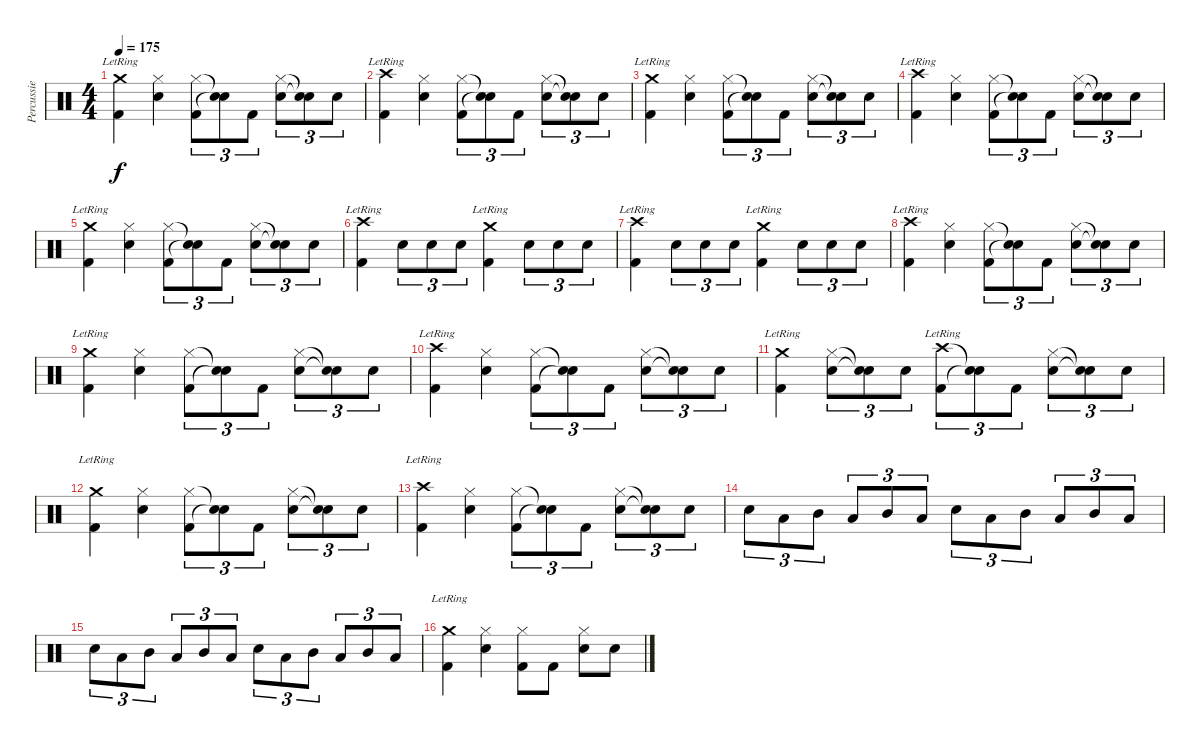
\track ("Percussie" "Percussie") {instrument percussion}
\staff {score}
\articulation defaults
\ts (4 4)
\tempo 175
\clef neutral
\ks c
("Crash medium (hit)"{lr} "Kick (hit) 2").4{dy f} ("Hi-Hat (closed)" "Snare (hit) 2").4 ("Hi-Hat (closed)" "Kick (hit) 2").8{tu (3 2)} ("Snare (hit)"{t} "Snare (hit)"{t}).8{tu (3 2)} "Kick (hit) 2".8{tu (3 2)} ("Hi-Hat (closed)" "Snare (hit) 2").8{tu (3 2)} ("Snare (hit)"{t} "Snare (hit)"{t}).8{tu (3 2)} "Snare (hit) 2".8{tu (3 2)} |
("Crash high (hit)"{lr} "Kick (hit) 2").4 ("Hi-Hat (closed)" "Snare (hit) 2").4 ("Hi-Hat (closed)" "Kick (hit) 2").8{tu (3 2)} ("Snare (hit)"{t} "Snare (hit)"{t}).8{tu (3 2)} "Kick (hit) 2".8{tu (3 2)} ("Hi-Hat (closed)" "Snare (hit) 2").8{tu (3 2)} ("Snare (hit)"{t} "Snare (hit)"{t}).8{tu (3 2)} "Snare (hit) 2".8{tu (3 2)} |
("Crash medium (hit)"{lr} "Kick (hit) 2").4 ("Hi-Hat (closed)" "Snare (hit) 2").4 ("Hi-Hat (closed)" "Kick (hit) 2").8{tu (3 2)} ("Snare (hit)"{t} "Snare (hit)"{t}).8{tu (3 2)} "Kick (hit) 2".8{tu (3 2)} ("Hi-Hat (closed)" "Snare (hit) 2").8{tu (3 2)} ("Snare (hit)"{t} "Snare (hit)"{t}).8{tu (3 2)} "Snare (hit) 2".8{tu (3 2)} |
("Crash high (hit)"{lr} "Kick (hit) 2").4 ("Hi-Hat (closed)" "Snare (hit) 2").4 ("Hi-Hat (closed)" "Kick (hit) 2").8{tu (3 2)} ("Snare (hit)"{t} "Snare (hit)"{t}).8{tu (3 2)} "Kick (hit) 2".8{tu (3 2)} ("Hi-Hat (closed)" "Snare (hit) 2").8{tu (3 2)} ("Snare (hit)"{t} "Snare (hit)"{t}).8{tu (3 2)} "Snare (hit) 2".8{tu (3 2)} |
("Crash medium (hit)"{lr} "Kick (hit) 2").4 ("Hi-Hat (closed)" "Snare (hit) 2").4 ("Hi-Hat (closed)" "Kick (hit) 2").8{tu (3 2)} ("Snare (hit)"{t} "Snare (hit)"{t}).8{tu (3 2)} "Kick (hit) 2".8{tu (3 2)} ("Hi-Hat (closed)" "Snare (hit) 2").8{tu (3 2)} ("Snare (hit)"{t} "Snare (hit)"{t}).8{tu (3 2)} "Snare (hit) 2".8{tu (3 2)} |
("Crash high (hit)"{lr} "Kick (hit) 2").4 "Snare (hit) 2".8{tu (3 2)} "Snare (hit) 2".8{tu (3 2)} "Snare (hit) 2".8{tu (3 2)} ("Crash medium (hit)"{lr} "Kick (hit) 2").4 "Snare (hit) 2".8{tu (3 2)} "Snare (hit) 2".8{tu (3 2)} "Snare (hit) 2".8{tu (3 2)} |
("Crash high (hit)"{lr} "Kick (hit) 2").4 "Snare (hit) 2".8{tu (3 2)} "Snare (hit) 2".8{tu (3 2)} "Snare (hit) 2".8{tu (3 2)} ("Crash medium (hit)"{lr} "Kick (hit) 2").4 "Snare (hit) 2".8{tu (3 2)} "Snare (hit) 2".8{tu (3 2)} "Snare (hit) 2".8{tu (3 2)} |
("Crash high (hit)"{lr} "Kick (hit) 2").4 ("Hi-Hat (closed)" "Snare (hit) 2").4 ("Hi-Hat (closed)" "Kick (hit) 2").8{tu (3 2)} ("Snare (hit)"{t} "Snare (hit)"{t}).8{tu (3 2)} "Kick (hit) 2".8{tu (3 2)} ("Hi-Hat (closed)" "Snare (hit) 2").8{tu (3 2)} ("Snare (hit)"{t} "Snare (hit)"{t}).8{tu (3 2)} "Snare (hit) 2".8{tu (3 2)} |
("Crash medium (hit)"{lr} "Kick (hit) 2").4 ("Hi-Hat (closed)" "Snare (hit) 2").4 ("Hi-Hat (closed)" "Kick (hit) 2").8{tu (3 2)} ("Snare (hit)"{t} "Snare (hit)"{t}).8{tu (3 2)} "Kick (hit) 2".8{tu (3 2)} ("Hi-Hat (closed)" "Snare (hit) 2").8{tu (3 2)} ("Snare (hit)"{t} "Snare (hit)"{t}).8{tu (3 2)} "Snare (hit) 2".8{tu (3 2)} |
("Crash high (hit)"{lr} "Kick (hit) 2").4 ("Hi-Hat (closed)" "Snare (hit) 2").4 ("Hi-Hat (closed)" "Kick (hit) 2").8{tu (3 2)} ("Snare (hit)"{t} "Snare (hit)"{t}).8{tu (3 2)} "Kick (hit) 2".8{tu (3 2)} ("Hi-Hat (closed)" "Snare (hit) 2").8{tu (3 2)} ("Snare (hit)"{t} "Snare (hit)"{t}).8{tu (3 2)} "Snare (hit) 2".8{tu (3 2)} |
("Crash medium (hit)"{lr} "Kick (hit) 2").4 ("Hi-Hat (closed)" "Snare (hit) 2").8{tu (3 2)} ("Snare (hit)"{t} "Snare (hit)"{t}).8{tu (3 2)} "Snare (hit) 2".8{tu (3 2)} ("Crash high (hit)"{lr} "Kick (hit) 2").8{tu (3 2)} ("Snare (hit)"{t} "Snare (hit)"{t}).8{tu (3 2)} "Kick (hit) 2".8{tu (3 2)} ("Hi-Hat (closed)" "Snare (hit) 2").8{tu (3 2)} ("Snare (hit)"{t} "Snare (hit)"{t}).8{tu (3 2)} "Snare (hit) 2".8{tu (3 2)} |
("Crash medium (hit)"{lr} "Kick (hit) 2").4 ("Hi-Hat (closed)" "Snare (hit) 2").4 ("Hi-Hat (closed)" "Kick (hit) 2").8{tu (3 2)} ("Snare (hit)"{t} "Snare (hit)"{t}).8{tu (3 2)} "Kick (hit) 2".8{tu (3 2)} ("Hi-Hat (closed)" "Snare (hit) 2").8{tu (3 2)} ("Snare (hit)"{t} "Snare (hit)"{t}).8{tu (3 2)} "Snare (hit) 2".8{tu (3 2)} |
("Crash high (hit)"{lr} "Kick (hit) 2").4 ("Hi-Hat (closed)" "Snare (hit) 2").4 ("Hi-Hat (closed)" "Kick (hit) 2").8{tu (3 2)} ("Snare (hit)"{t} "Snare (hit)"{t}).8{tu (3 2)} "Kick (hit) 2".8{tu (3 2)} ("Hi-Hat (closed)" "Snare (hit) 2").8{tu (3 2)} ("Snare (hit)"{t} "Snare (hit)"{t}).8{tu (3 2)} "Snare (hit) 2".8{tu (3 2)} |
"Snare (hit) 2".8{tu (3 2)} "Low Tom (hit)".8{tu (3 2)} "Mid Tom (hit)".8{tu (3 2)} "Low Tom (hit)".8{tu (3 2)} "Mid Tom (hit)".8{tu (3 2)} "Low Tom (hit)".8{tu (3 2)} "Snare (hit) 2".8{tu (3 2)} "Low Tom (hit)".8{tu (3 2)} "Mid Tom (hit)".8{tu (3 2)} "Low Tom (hit)".8{tu (3 2)} "Mid Tom (hit)".8{tu (3 2)} "Low Tom (hit)".8{tu (3 2)} |
"Snare (hit) 2".8{tu (3 2)} "Low Tom (hit)".8{tu (3 2)} "Mid Tom (hit)".8{tu (3 2)} "Low Tom (hit)".8{tu (3 2)} "Mid Tom (hit)".8{tu (3 2)} "Low Tom (hit)".8{tu (3 2)} "Snare (hit) 2".8{tu (3 2)} "Low Tom (hit)".8{tu (3 2)} "Mid Tom (hit)".8{tu (3 2)} "Low Tom (hit)".8{tu (3 2)} "Mid Tom (hit)".8{tu (3 2)} "Low Tom (hit)".8{tu (3 2)} |
("Crash medium (hit)"{lr} "Kick (hit) 2").4 ("Hi-Hat (closed)" "Snare (hit) 2").4 ("Hi-Hat (closed)" "Kick (hit) 2").8 "Kick (hit) 2".8 ("Hi-Hat (closed)" "Snare (hit) 2").8 "Snare (hit) 2".8
